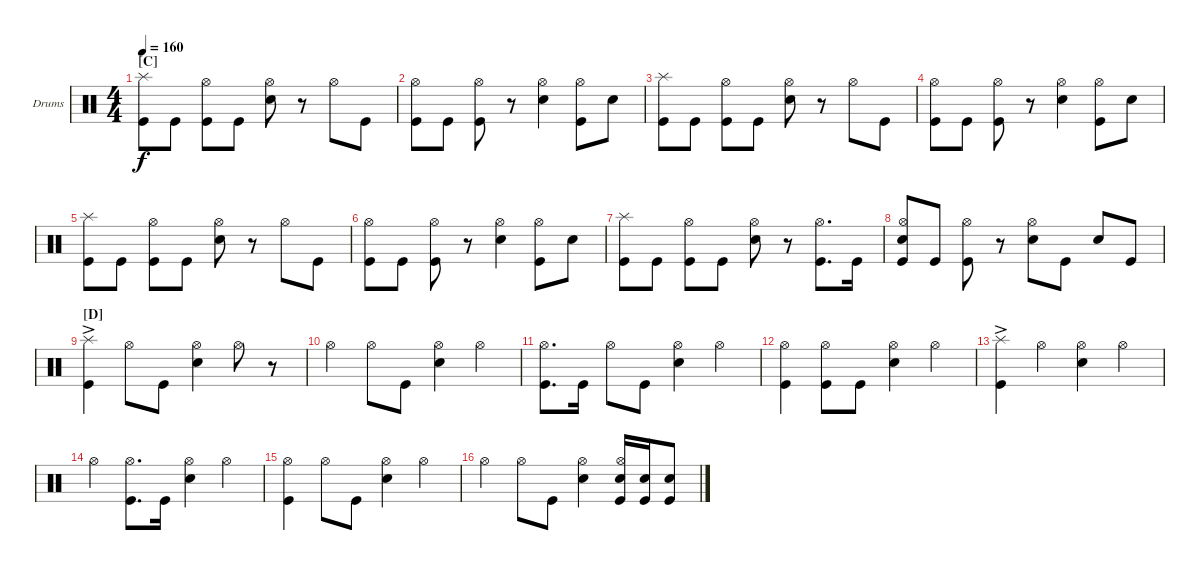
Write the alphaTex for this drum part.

\defaultSystemsLayout 4
\bracketExtendMode groupsimilarinstruments
\firstSystemTrackNameOrientation horizontal
\otherSystemsTrackNameOrientation horizontal
\track ("Drumkit" "Drums") {instrument percussion}
\staff {score}
\articulation defaults
\ts (4 4)
\section ("C" "")
\tempo 160
\clef neutral
\ks c
("Splash (hit)" "Kick (hit)").8{dy f} "Kick (hit)".8 ("Hi-Hat (open)" "Kick (hit)").8 "Kick (hit)".8 ("Hi-Hat (open)" "Snare (hit) 2").8 r.8 "Hi-Hat (open)".8 "Kick (hit)".8 |
("Hi-Hat (open)" "Kick (hit)").8 "Kick (hit)".8 ("Hi-Hat (open)" "Kick (hit)").8 r.8 ("Snare (hit) 2" "Hi-Hat (open)").4 ("Hi-Hat (open)" "Kick (hit)").8 "Snare (hit) 2".8 |
("Splash (hit)" "Kick (hit)").8 "Kick (hit)".8 ("Hi-Hat (open)" "Kick (hit)").8 "Kick (hit)".8 ("Hi-Hat (open)" "Snare (hit) 2").8 r.8 "Hi-Hat (open)".8 "Kick (hit)".8 |
("Hi-Hat (open)" "Kick (hit)").8 "Kick (hit)".8 ("Hi-Hat (open)" "Kick (hit)").8 r.8 ("Snare (hit) 2" "Hi-Hat (open)").4 ("Hi-Hat (open)" "Kick (hit)").8 "Snare (hit) 2".8 |
("Splash (hit)" "Kick (hit)").8 "Kick (hit)".8 ("Hi-Hat (open)" "Kick (hit)").8 "Kick (hit)".8 ("Hi-Hat (open)" "Snare (hit) 2").8 r.8 "Hi-Hat (open)".8 "Kick (hit)".8 |
("Hi-Hat (open)" "Kick (hit)").8 "Kick (hit)".8 ("Hi-Hat (open)" "Kick (hit)").8 r.8 ("Snare (hit) 2" "Hi-Hat (open)").4 ("Hi-Hat (open)" "Kick (hit)").8 "Snare (hit) 2".8 |
("Splash (hit)" "Kick (hit)").8 "Kick (hit)".8 ("Hi-Hat (open)" "Kick (hit)").8 "Kick (hit)".8 ("Hi-Hat (open)" "Snare (hit) 2").8 r.8 ("Hi-Hat (open)" "Kick (hit)").8{d} "Kick (hit)".16 |
("Hi-Hat (open)" "Kick (hit)" "Snare (hit) 2").8 "Kick (hit)".8 ("Hi-Hat (open)" "Kick (hit)").8 r.8 ("Hi-Hat (open)" "Snare (hit) 2").8 "Kick (hit)".8 "Snare (hit) 2".8 "Kick (hit)".8 |
\section ("D" "")
("Splash (hit)"{ac} "Kick (hit)").4 "Hi-Hat (open)".8 "Kick (hit)".8 ("Hi-Hat (open)" "Snare (hit) 2").4 "Hi-Hat (open)".8 r.8 |
"Hi-Hat (open)".4 "Hi-Hat (open)".8 "Kick (hit)".8 ("Hi-Hat (open)" "Snare (hit) 2").4 "Hi-Hat (open)".4 |
("Kick (hit)" "Hi-Hat (open)").8{d} "Kick (hit)".16 "Hi-Hat (open)".8 "Kick (hit)".8 ("Hi-Hat (open)" "Snare (hit) 2").4 "Hi-Hat (open)".4 |
("Hi-Hat (open)" "Kick (hit)").4 ("Hi-Hat (open)" "Kick (hit)").8 "Kick (hit)".8 ("Hi-Hat (open)" "Snare (hit) 2").4 "Hi-Hat (open)".4 |
("Splash (hit)"{ac} "Kick (hit)").4 "Hi-Hat (open)".4 ("Hi-Hat (open)" "Snare (hit) 2").4 "Hi-Hat (open)".4 |
"Hi-Hat (open)".4 ("Hi-Hat (open)" "Kick (hit)").8{d} "Kick (hit)".16 ("Hi-Hat (open)" "Snare (hit) 2").4 "Hi-Hat (open)".4 |
("Kick (hit)" "Hi-Hat (open)").4 "Hi-Hat (open)".8 "Kick (hit)".8 ("Hi-Hat (open)" "Snare (hit) 2").4 "Hi-Hat (open)".4 |
"Hi-Hat (open)".4 "Hi-Hat (open)".8 "Kick (hit)".8 ("Hi-Hat (open)" "Snare (hit) 2").4 ("Hi-Hat (open)" "Snare (hit) 2" "Kick (hit)").16 ("Snare (hit) 2" "Kick (hit)").16 ("Snare (hit) 2" "Kick (hit)").8
